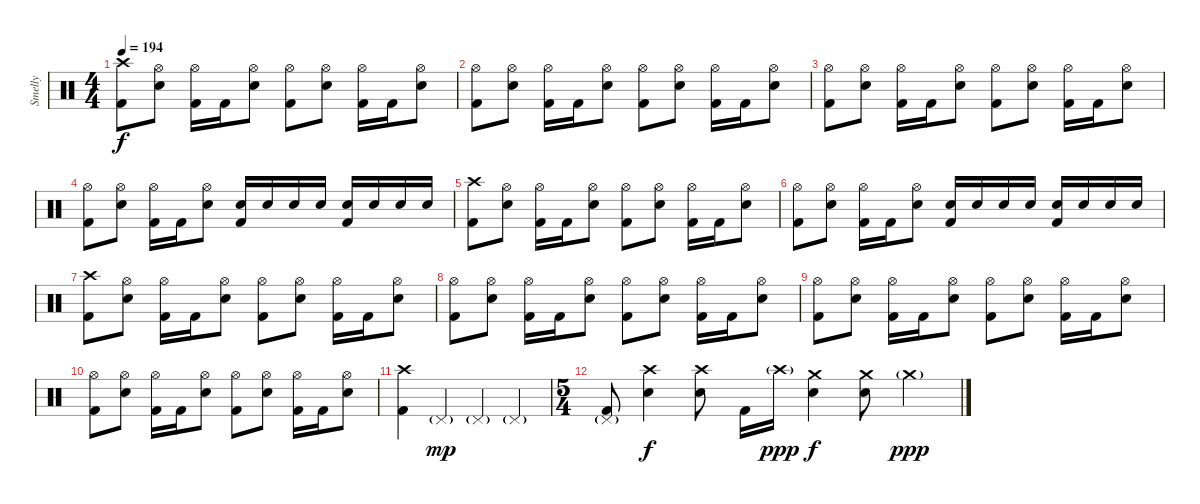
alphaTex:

\track ("Smelly" "Smelly") {instrument percussion}
\staff {score}
\articulation defaults
\ts (4 4)
\tempo 194
\clef neutral
\ks c
("Crash high (hit)" "Kick (hit) 2").8{dy f} ("Hi-Hat (open)" "Electric Snare (hit)").8 ("Hi-Hat (open)" "Kick (hit) 2").16 "Kick (hit) 2".16 ("Hi-Hat (open)" "Electric Snare (hit)").8 ("Hi-Hat (open)" "Kick (hit) 2").8 ("Hi-Hat (open)" "Electric Snare (hit)").8 ("Hi-Hat (open)" "Kick (hit) 2").16 "Kick (hit) 2".16 ("Hi-Hat (open)" "Electric Snare (hit)").8 |
("Hi-Hat (open)" "Kick (hit) 2").8 ("Hi-Hat (open)" "Electric Snare (hit)").8 ("Hi-Hat (open)" "Kick (hit) 2").16 "Kick (hit) 2".16 ("Hi-Hat (open)" "Electric Snare (hit)").8 ("Hi-Hat (open)" "Kick (hit) 2").8 ("Hi-Hat (open)" "Electric Snare (hit)").8 ("Hi-Hat (open)" "Kick (hit) 2").16 "Kick (hit) 2".16 ("Hi-Hat (open)" "Electric Snare (hit)").8 |
("Hi-Hat (open)" "Kick (hit) 2").8 ("Hi-Hat (open)" "Electric Snare (hit)").8 ("Hi-Hat (open)" "Kick (hit) 2").16 "Kick (hit) 2".16 ("Hi-Hat (open)" "Electric Snare (hit)").8 ("Hi-Hat (open)" "Kick (hit) 2").8 ("Hi-Hat (open)" "Electric Snare (hit)").8 ("Hi-Hat (open)" "Kick (hit) 2").16 "Kick (hit) 2".16 ("Hi-Hat (open)" "Electric Snare (hit)").8 |
("Hi-Hat (open)" "Kick (hit) 2").8 ("Hi-Hat (open)" "Electric Snare (hit)").8 ("Hi-Hat (open)" "Kick (hit) 2").16 "Kick (hit) 2".16 ("Hi-Hat (open)" "Electric Snare (hit)").8 ("Electric Snare (hit)" "Kick (hit) 2").16 "Electric Snare (hit)".16 "Electric Snare (hit)".16 "Electric Snare (hit)".16 ("Electric Snare (hit)" "Kick (hit) 2").16 "Electric Snare (hit)".16 "Electric Snare (hit)".16 "Electric Snare (hit)".16 |
("Crash high (hit)" "Kick (hit) 2").8 ("Hi-Hat (open)" "Electric Snare (hit)").8 ("Hi-Hat (open)" "Kick (hit) 2").16 "Kick (hit) 2".16 ("Hi-Hat (open)" "Electric Snare (hit)").8 ("Hi-Hat (open)" "Kick (hit) 2").8 ("Hi-Hat (open)" "Electric Snare (hit)").8 ("Hi-Hat (open)" "Kick (hit) 2").16 "Kick (hit) 2".16 ("Hi-Hat (open)" "Electric Snare (hit)").8 |
("Hi-Hat (open)" "Kick (hit) 2").8 ("Hi-Hat (open)" "Electric Snare (hit)").8 ("Hi-Hat (open)" "Kick (hit) 2").16 "Kick (hit) 2".16 ("Hi-Hat (open)" "Electric Snare (hit)").8 ("Electric Snare (hit)" "Kick (hit) 2").16 "Electric Snare (hit)".16 "Electric Snare (hit)".16 "Electric Snare (hit)".16 ("Electric Snare (hit)" "Kick (hit) 2").16 "Electric Snare (hit)".16 "Electric Snare (hit)".16 "Electric Snare (hit)".16 |
("Crash high (hit)" "Kick (hit) 2").8 ("Hi-Hat (open)" "Electric Snare (hit)").8 ("Hi-Hat (open)" "Kick (hit) 2").16 "Kick (hit) 2".16 ("Hi-Hat (open)" "Electric Snare (hit)").8 ("Hi-Hat (open)" "Kick (hit) 2").8 ("Hi-Hat (open)" "Electric Snare (hit)").8 ("Hi-Hat (open)" "Kick (hit) 2").16 "Kick (hit) 2".16 ("Hi-Hat (open)" "Electric Snare (hit)").8 |
("Hi-Hat (open)" "Kick (hit) 2").8 ("Hi-Hat (open)" "Electric Snare (hit)").8 ("Hi-Hat (open)" "Kick (hit) 2").16 "Kick (hit) 2".16 ("Hi-Hat (open)" "Electric Snare (hit)").8 ("Hi-Hat (open)" "Kick (hit) 2").8 ("Hi-Hat (open)" "Electric Snare (hit)").8 ("Hi-Hat (open)" "Kick (hit) 2").16 "Kick (hit) 2".16 ("Hi-Hat (open)" "Electric Snare (hit)").8 |
("Hi-Hat (open)" "Kick (hit) 2").8 ("Hi-Hat (open)" "Electric Snare (hit)").8 ("Hi-Hat (open)" "Kick (hit) 2").16 "Kick (hit) 2".16 ("Hi-Hat (open)" "Electric Snare (hit)").8 ("Hi-Hat (open)" "Kick (hit) 2").8 ("Hi-Hat (open)" "Electric Snare (hit)").8 ("Hi-Hat (open)" "Kick (hit) 2").16 "Kick (hit) 2".16 ("Hi-Hat (open)" "Electric Snare (hit)").8 |
("Hi-Hat (open)" "Kick (hit) 2").8 ("Hi-Hat (open)" "Electric Snare (hit)").8 ("Hi-Hat (open)" "Kick (hit) 2").16 "Kick (hit) 2".16 ("Hi-Hat (open)" "Electric Snare (hit)").8 ("Hi-Hat (open)" "Kick (hit) 2").8 ("Hi-Hat (open)" "Electric Snare (hit)").8 ("Hi-Hat (open)" "Kick (hit) 2").16 "Kick (hit) 2".16 ("Hi-Hat (open)" "Electric Snare (hit)").8 |
("Crash high (hit)" "Kick (hit) 2").4 "Pedal Hi-Hat (hit)"{g}.4{dy mp} "Pedal Hi-Hat (hit)"{g}.4 "Pedal Hi-Hat (hit)"{g}.4 |
\ts (5 4)
("Pedal Hi-Hat (hit)"{g} "Kick (hit) 2").8 ("Crash high (hit)" "Electric Snare (hit)").4{dy f} ("Crash high (hit)" "Electric Snare (hit)").8 "Kick (hit) 2".16 "Crash high (hit)"{g}.16{dy ppp} ("Crash medium (hit)" "Electric Snare (hit)").4{dy f} ("Crash medium (hit)" "Electric Snare (hit)").8 "Crash medium (hit)"{g}.4{dy ppp}
